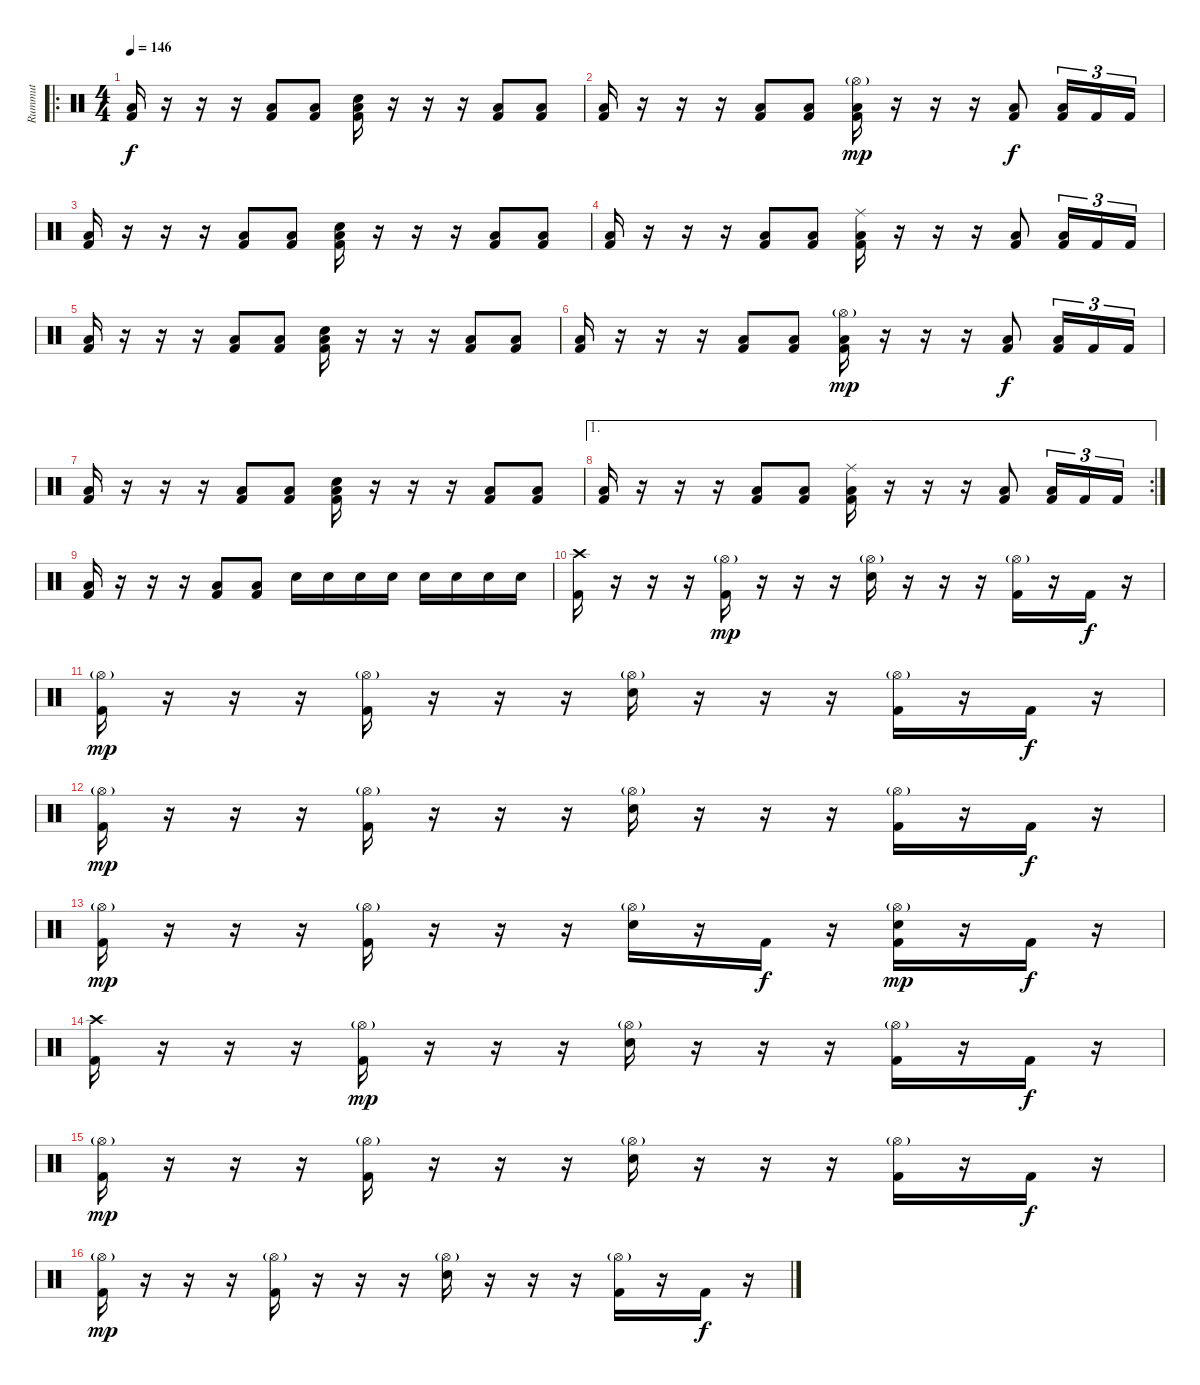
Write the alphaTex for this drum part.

\track ("Rummut" "Rummut") {instrument percussion}
\staff {score}
\articulation defaults
\ro
\ts (4 4)
\section ("" "")
\tempo 146
\clef neutral
\ks c
("Low Floor Tom (hit)" "Kick (hit) 2").16{dy f} r.16 r.16 r.16 ("Low Floor Tom (hit)" "Kick (hit) 2").8 ("Low Floor Tom (hit)" "Kick (hit) 2").8 ("Low Floor Tom (hit)" "Electric Snare (hit)" "Kick (hit) 2").16 r.16 r.16 r.16 ("Low Floor Tom (hit)" "Kick (hit) 2").8 ("Low Floor Tom (hit)" "Kick (hit) 2").8 |
("Low Floor Tom (hit)" "Kick (hit) 2").16 r.16 r.16 r.16 ("Low Floor Tom (hit)" "Kick (hit) 2").8 ("Low Floor Tom (hit)" "Kick (hit) 2").8 ("Low Floor Tom (hit)" "Hi-Hat (open)"{g} "Kick (hit) 2").16{dy mp} r.16 r.16 r.16 ("Low Floor Tom (hit)" "Kick (hit) 2").8{dy f} ("Low Floor Tom (hit)" "Kick (hit) 2").16{tu (3 2)} "Kick (hit) 2".16{tu (3 2)} "Kick (hit) 2".16{tu (3 2)} |
("Low Floor Tom (hit)" "Kick (hit) 2").16 r.16 r.16 r.16 ("Low Floor Tom (hit)" "Kick (hit) 2").8 ("Low Floor Tom (hit)" "Kick (hit) 2").8 ("Low Floor Tom (hit)" "Electric Snare (hit)" "Kick (hit) 2").16 r.16 r.16 r.16 ("Low Floor Tom (hit)" "Kick (hit) 2").8 ("Low Floor Tom (hit)" "Kick (hit) 2").8 |
("Low Floor Tom (hit)" "Kick (hit) 2").16 r.16 r.16 r.16 ("Low Floor Tom (hit)" "Kick (hit) 2").8 ("Low Floor Tom (hit)" "Kick (hit) 2").8 ("Low Floor Tom (hit)" "Ride (middle)" "Kick (hit) 2").16 r.16 r.16 r.16 ("Low Floor Tom (hit)" "Kick (hit) 2").8 ("Low Floor Tom (hit)" "Kick (hit) 2").16{tu (3 2)} "Kick (hit) 2".16{tu (3 2)} "Kick (hit) 2".16{tu (3 2)} |
("Low Floor Tom (hit)" "Kick (hit) 2").16 r.16 r.16 r.16 ("Low Floor Tom (hit)" "Kick (hit) 2").8 ("Low Floor Tom (hit)" "Kick (hit) 2").8 ("Low Floor Tom (hit)" "Electric Snare (hit)" "Kick (hit) 2").16 r.16 r.16 r.16 ("Low Floor Tom (hit)" "Kick (hit) 2").8 ("Low Floor Tom (hit)" "Kick (hit) 2").8 |
("Low Floor Tom (hit)" "Kick (hit) 2").16 r.16 r.16 r.16 ("Low Floor Tom (hit)" "Kick (hit) 2").8 ("Low Floor Tom (hit)" "Kick (hit) 2").8 ("Low Floor Tom (hit)" "Hi-Hat (open)"{g} "Kick (hit) 2").16{dy mp} r.16 r.16 r.16 ("Low Floor Tom (hit)" "Kick (hit) 2").8{dy f} ("Low Floor Tom (hit)" "Kick (hit) 2").16{tu (3 2)} "Kick (hit) 2".16{tu (3 2)} "Kick (hit) 2".16{tu (3 2)} |
("Low Floor Tom (hit)" "Kick (hit) 2").16 r.16 r.16 r.16 ("Low Floor Tom (hit)" "Kick (hit) 2").8 ("Low Floor Tom (hit)" "Kick (hit) 2").8 ("Low Floor Tom (hit)" "Electric Snare (hit)" "Kick (hit) 2").16 r.16 r.16 r.16 ("Low Floor Tom (hit)" "Kick (hit) 2").8 ("Low Floor Tom (hit)" "Kick (hit) 2").8 |
\ae 1
\rc 2
("Low Floor Tom (hit)" "Kick (hit) 2").16 r.16 r.16 r.16 ("Low Floor Tom (hit)" "Kick (hit) 2").8 ("Low Floor Tom (hit)" "Kick (hit) 2").8 ("Low Floor Tom (hit)" "Ride (middle)" "Kick (hit) 2").16 r.16 r.16 r.16 ("Low Floor Tom (hit)" "Kick (hit) 2").8 ("Low Floor Tom (hit)" "Kick (hit) 2").16{tu (3 2)} "Kick (hit) 2".16{tu (3 2)} "Kick (hit) 2".16{tu (3 2)} |
("Low Floor Tom (hit)" "Kick (hit) 2").16 r.16 r.16 r.16 ("Low Floor Tom (hit)" "Kick (hit) 2").8 ("Low Floor Tom (hit)" "Kick (hit) 2").8 "Electric Snare (hit)".16 "Electric Snare (hit)".16 "Electric Snare (hit)".16 "Electric Snare (hit)".16 "Electric Snare (hit)".16 "Electric Snare (hit)".16 "Electric Snare (hit)".16 "Electric Snare (hit)".16 |
\section ("" "")
("Crash high (hit)" "Kick (hit) 2").16 r.16 r.16 r.16 ("Hi-Hat (open)"{g} "Kick (hit) 2").16{dy mp} r.16 r.16 r.16 ("Hi-Hat (open)"{g} "Electric Snare (hit)").16 r.16 r.16 r.16 ("Hi-Hat (open)"{g} "Kick (hit) 2").16 r.16 "Kick (hit) 2".16{dy f} r.16 |
("Hi-Hat (open)"{g} "Kick (hit) 2").16{dy mp} r.16 r.16 r.16 ("Hi-Hat (open)"{g} "Kick (hit) 2").16 r.16 r.16 r.16 ("Hi-Hat (open)"{g} "Electric Snare (hit)").16 r.16 r.16 r.16 ("Hi-Hat (open)"{g} "Kick (hit) 2").16 r.16 "Kick (hit) 2".16{dy f} r.16 |
("Hi-Hat (open)"{g} "Kick (hit) 2").16{dy mp} r.16 r.16 r.16 ("Hi-Hat (open)"{g} "Kick (hit) 2").16 r.16 r.16 r.16 ("Hi-Hat (open)"{g} "Electric Snare (hit)").16 r.16 r.16 r.16 ("Hi-Hat (open)"{g} "Kick (hit) 2").16 r.16 "Kick (hit) 2".16{dy f} r.16 |
("Hi-Hat (open)"{g} "Kick (hit) 2").16{dy mp} r.16 r.16 r.16 ("Hi-Hat (open)"{g} "Kick (hit) 2").16 r.16 r.16 r.16 ("Hi-Hat (open)"{g} "Electric Snare (hit)").16 r.16 "Kick (hit) 2".16{dy f} r.16 ("Hi-Hat (open)"{g} "Electric Snare (hit)" "Kick (hit) 2").16{dy mp} r.16 "Kick (hit) 2".16{dy f} r.16 |
("Crash high (hit)" "Kick (hit) 2").16 r.16 r.16 r.16 ("Hi-Hat (open)"{g} "Kick (hit) 2").16{dy mp} r.16 r.16 r.16 ("Hi-Hat (open)"{g} "Electric Snare (hit)").16 r.16 r.16 r.16 ("Hi-Hat (open)"{g} "Kick (hit) 2").16 r.16 "Kick (hit) 2".16{dy f} r.16 |
("Hi-Hat (open)"{g} "Kick (hit) 2").16{dy mp} r.16 r.16 r.16 ("Hi-Hat (open)"{g} "Kick (hit) 2").16 r.16 r.16 r.16 ("Hi-Hat (open)"{g} "Electric Snare (hit)").16 r.16 r.16 r.16 ("Hi-Hat (open)"{g} "Kick (hit) 2").16 r.16 "Kick (hit) 2".16{dy f} r.16 |
("Hi-Hat (open)"{g} "Kick (hit) 2").16{dy mp} r.16 r.16 r.16 ("Hi-Hat (open)"{g} "Kick (hit) 2").16 r.16 r.16 r.16 ("Hi-Hat (open)"{g} "Electric Snare (hit)").16 r.16 r.16 r.16 ("Hi-Hat (open)"{g} "Kick (hit) 2").16 r.16 "Kick (hit) 2".16{dy f} r.16
